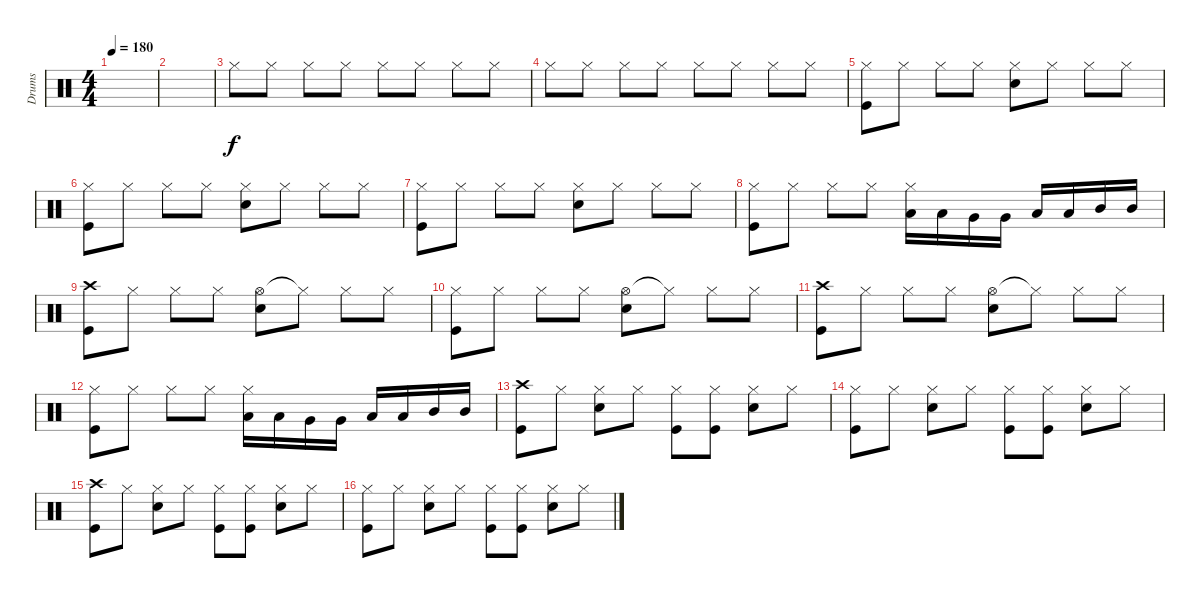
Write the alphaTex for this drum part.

\track ("Drums" "Drums") {instrument percussion}
\staff {score}
\articulation defaults
\ts (4 4)
\tempo 180
\clef neutral
\ks c
|
|
"Hi-Hat (closed)".8 "Hi-Hat (closed)".8 "Hi-Hat (closed)".8 "Hi-Hat (closed)".8 "Hi-Hat (closed)".8 "Hi-Hat (closed)".8 "Hi-Hat (closed)".8 "Hi-Hat (closed)".8 |
"Hi-Hat (closed)".8 "Hi-Hat (closed)".8 "Hi-Hat (closed)".8 "Hi-Hat (closed)".8 "Hi-Hat (closed)".8 "Hi-Hat (closed)".8 "Hi-Hat (closed)".8 "Hi-Hat (closed)".8 |
("Hi-Hat (closed)" "Kick (hit)").8 "Hi-Hat (closed)".8 "Hi-Hat (closed)".8 "Hi-Hat (closed)".8 ("Hi-Hat (closed)" "Snare (hit) 2").8 "Hi-Hat (closed)".8 "Hi-Hat (closed)".8 "Hi-Hat (closed)".8 |
("Hi-Hat (closed)" "Kick (hit)").8 "Hi-Hat (closed)".8 "Hi-Hat (closed)".8 "Hi-Hat (closed)".8 ("Hi-Hat (closed)" "Snare (hit) 2").8 "Hi-Hat (closed)".8 "Hi-Hat (closed)".8 "Hi-Hat (closed)".8 |
("Hi-Hat (closed)" "Kick (hit)").8 "Hi-Hat (closed)".8 "Hi-Hat (closed)".8 "Hi-Hat (closed)".8 ("Hi-Hat (closed)" "Snare (hit) 2").8 "Hi-Hat (closed)".8 "Hi-Hat (closed)".8 "Hi-Hat (closed)".8 |
("Hi-Hat (closed)" "Kick (hit)").8 "Hi-Hat (closed)".8 "Hi-Hat (closed)".8 "Hi-Hat (closed)".8 ("Hi-Hat (closed)" "Low Floor Tom (hit)").16 "Low Floor Tom (hit)".16 "Very Low Tom (hit)".16 "Very Low Tom (hit)".16 "Low Tom (hit)".16 "Low Tom (hit)".16 "Mid Tom (hit)".16 "Mid Tom (hit)".16 |
("Crash high (hit)" "Kick (hit)").8 "Hi-Hat (closed)".8 "Hi-Hat (closed)".8 "Hi-Hat (closed)".8 ("Hi-Hat (open)" "Snare (hit) 2").8 "Hi-Hat (closed)"{t}.8 "Hi-Hat (closed)".8 "Hi-Hat (closed)".8 |
("Hi-Hat (closed)" "Kick (hit)").8 "Hi-Hat (closed)".8 "Hi-Hat (closed)".8 "Hi-Hat (closed)".8 ("Hi-Hat (open)" "Snare (hit) 2").8 "Hi-Hat (closed)"{t}.8 "Hi-Hat (closed)".8 "Hi-Hat (closed)".8 |
("Crash high (hit)" "Kick (hit)").8 "Hi-Hat (closed)".8 "Hi-Hat (closed)".8 "Hi-Hat (closed)".8 ("Hi-Hat (open)" "Snare (hit) 2").8 "Hi-Hat (closed)"{t}.8 "Hi-Hat (closed)".8 "Hi-Hat (closed)".8 |
("Hi-Hat (closed)" "Kick (hit)").8 "Hi-Hat (closed)".8 "Hi-Hat (closed)".8 "Hi-Hat (closed)".8 ("Hi-Hat (closed)" "Low Floor Tom (hit)").16 "Low Floor Tom (hit)".16 "Very Low Tom (hit)".16 "Very Low Tom (hit)".16 "Low Tom (hit)".16 "Low Tom (hit)".16 "Mid Tom (hit)".16 "Mid Tom (hit)".16 |
("Crash high (hit)" "Kick (hit)").8 "Hi-Hat (closed)".8 ("Hi-Hat (closed)" "Snare (hit) 2").8 "Hi-Hat (closed)".8 ("Hi-Hat (closed)" "Kick (hit)").8 ("Hi-Hat (closed)" "Kick (hit)").8 ("Hi-Hat (closed)" "Snare (hit) 2").8 "Hi-Hat (closed)".8 |
("Hi-Hat (closed)" "Kick (hit)").8 "Hi-Hat (closed)".8 ("Hi-Hat (closed)" "Snare (hit) 2").8 "Hi-Hat (closed)".8 ("Hi-Hat (closed)" "Kick (hit)").8 ("Hi-Hat (closed)" "Kick (hit)").8 ("Hi-Hat (closed)" "Snare (hit) 2").8 "Hi-Hat (closed)".8 |
("Crash high (hit)" "Kick (hit)").8 "Hi-Hat (closed)".8 ("Hi-Hat (closed)" "Snare (hit) 2").8 "Hi-Hat (closed)".8 ("Hi-Hat (closed)" "Kick (hit)").8 ("Hi-Hat (closed)" "Kick (hit)").8 ("Hi-Hat (closed)" "Snare (hit) 2").8 "Hi-Hat (closed)".8 |
("Hi-Hat (closed)" "Kick (hit)").8 "Hi-Hat (closed)".8 ("Hi-Hat (closed)" "Snare (hit) 2").8 "Hi-Hat (closed)".8 ("Hi-Hat (closed)" "Kick (hit)").8 ("Hi-Hat (closed)" "Kick (hit)").8 ("Hi-Hat (closed)" "Snare (hit) 2").8 "Hi-Hat (closed)".8
